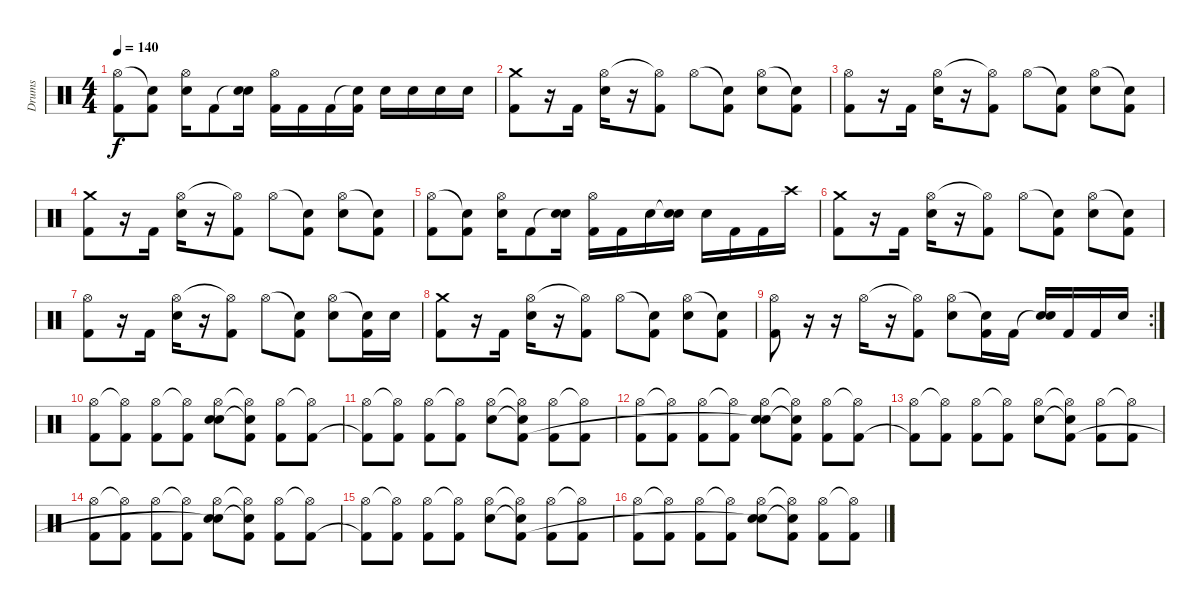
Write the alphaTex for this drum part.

\track ("Drums" "Drums") {instrument percussion}
\staff {score}
\articulation defaults
\ts (4 4)
\tempo 140
\clef neutral
\ks c
("Hi-Hat (open)" "Kick (hit) 2").8{dy f} ("Snare (hit)"{t} "Kick (hit) 2").8 ("Hi-Hat (open)" "Electric Snare (hit)").16 "Kick (hit) 2".8 ("Snare (hit)"{t} "Electric Snare (hit)").16 ("Hi-Hat (open)" "Kick (hit) 2").16 "Kick (hit) 2".16 "Kick (hit) 2".16 ("Snare (hit)"{t} "Kick (hit) 2").16 "Electric Snare (hit)".16 "Electric Snare (hit)".16 "Electric Snare (hit)".16 "Electric Snare (hit)".16 |
("Crash medium (hit)" "Kick (hit) 2").8 r.16 "Kick (hit) 2".16 ("Hi-Hat (open)" "Electric Snare (hit)").16 r.16 ("Hi-Hat (open)"{t} "Kick (hit) 2").8 "Hi-Hat (open)".8 ("Snare (hit)"{t} "Kick (hit) 2").8 ("Hi-Hat (open)" "Electric Snare (hit)").8 ("Snare (hit)"{t} "Kick (hit) 2").8 |
("Hi-Hat (open)" "Kick (hit) 2").8 r.16 "Kick (hit) 2".16 ("Hi-Hat (open)" "Electric Snare (hit)").16 r.16 ("Hi-Hat (open)"{t} "Kick (hit) 2").8 "Hi-Hat (open)".8 ("Snare (hit)"{t} "Kick (hit) 2").8 ("Hi-Hat (open)" "Electric Snare (hit)").8 ("Snare (hit)"{t} "Kick (hit) 2").8 |
("Crash medium (hit)" "Kick (hit) 2").8 r.16 "Kick (hit) 2".16 ("Hi-Hat (open)" "Electric Snare (hit)").16 r.16 ("Hi-Hat (open)"{t} "Kick (hit) 2").8 "Hi-Hat (open)".8 ("Snare (hit)"{t} "Kick (hit) 2").8 ("Hi-Hat (open)" "Electric Snare (hit)").8 ("Snare (hit)"{t} "Kick (hit) 2").8 |
("Hi-Hat (open)" "Kick (hit) 2").8 ("Snare (hit)"{t} "Kick (hit) 2").8 ("Hi-Hat (open)" "Electric Snare (hit)").16 "Kick (hit) 2".8 ("Snare (hit)"{t} "Electric Snare (hit)").16 ("Hi-Hat (open)" "Kick (hit) 2").16 "Kick (hit) 2".16 "Electric Snare (hit)".16 ("Snare (hit)"{t} "Electric Snare (hit)").16 "Electric Snare (hit)".16 "Kick (hit) 2".16 "Kick (hit) 2".16 "Crash high (hit)".16 |
("Crash medium (hit)" "Kick (hit) 2").8 r.16 "Kick (hit) 2".16 ("Hi-Hat (open)" "Electric Snare (hit)").16 r.16 ("Hi-Hat (open)"{t} "Kick (hit) 2").8 "Hi-Hat (open)".8 ("Snare (hit)"{t} "Kick (hit) 2").8 ("Hi-Hat (open)" "Electric Snare (hit)").8 ("Snare (hit)"{t} "Kick (hit) 2").8 |
("Hi-Hat (open)" "Kick (hit) 2").8 r.16 "Kick (hit) 2".16 ("Hi-Hat (open)" "Electric Snare (hit)").16 r.16 ("Hi-Hat (open)"{t} "Kick (hit) 2").8 "Hi-Hat (open)".8 ("Snare (hit)"{t} "Kick (hit) 2").8 ("Hi-Hat (open)" "Electric Snare (hit)").8 ("Snare (hit)"{t} "Kick (hit) 2").16 "Electric Snare (hit)".16 |
("Crash medium (hit)" "Kick (hit) 2").8 r.16 "Kick (hit) 2".16 ("Hi-Hat (open)" "Electric Snare (hit)").16 r.16 ("Hi-Hat (open)"{t} "Kick (hit) 2").8 "Hi-Hat (open)".8 ("Snare (hit)"{t} "Kick (hit) 2").8 ("Hi-Hat (open)" "Electric Snare (hit)").8 ("Snare (hit)"{t} "Kick (hit) 2").8 |
\rc 2
("Hi-Hat (open)" "Kick (hit) 2").8 r.16 r.16 "Hi-Hat (open)".16 r.16 ("Hi-Hat (open)"{t} "Kick (hit) 2").8 ("Hi-Hat (open)" "Electric Snare (hit)").8 ("Snare (hit)"{t} "Kick (hit) 2").16 "Kick (hit) 2".16 ("Snare (hit)"{t} "Electric Snare (hit)").16 "Kick (hit) 2".16 "Kick (hit) 2".16 "Electric Snare (hit)".16 |
("Hi-Hat (open)" "Kick (hit) 2").8 ("Hi-Hat (open)"{t} "Kick (hit) 2").8 ("Hi-Hat (open)" "Kick (hit) 2").8 ("Hi-Hat (open)"{t} "Kick (hit) 2").8 ("Hi-Hat (open)" "Electric Snare (hit)" "Snare (hit)").8 ("Hi-Hat (open)"{t} "Snare (hit) 2"{t} "Kick (hit) 2").8 ("Hi-Hat (open)" "Kick (hit) 2").8 ("Hi-Hat (open)"{t} "Kick (hit) 2").8 |
("Hi-Hat (open)" "Kick (hit) 2"{t}).8 ("Hi-Hat (open)"{t} "Kick (hit) 2").8 ("Hi-Hat (open)" "Kick (hit) 2").8 ("Hi-Hat (open)"{t} "Kick (hit) 2").8 ("Hi-Hat (open)" "Electric Snare (hit)").8 ("Hi-Hat (open)"{t} "Snare (hit)"{t} "Kick (hit) 2").8 ("Hi-Hat (open)" "Kick (hit) 2").8 ("Hi-Hat (open)"{t} "Kick (hit) 2").8 |
("Hi-Hat (open)" "Kick (hit) 2").8 ("Hi-Hat (open)"{t} "Kick (hit) 2").8 ("Hi-Hat (open)" "Kick (hit) 2").8 ("Hi-Hat (open)"{t} "Kick (hit) 2").8 ("Hi-Hat (open)" "Electric Snare (hit)" "Snare (hit)"{t}).8 ("Hi-Hat (open)"{t} "Snare (hit) 2"{t} "Kick (hit) 2").8 ("Hi-Hat (open)" "Kick (hit) 2").8 ("Hi-Hat (open)"{t} "Kick (hit) 2").8 |
("Hi-Hat (open)" "Kick (hit) 2"{t}).8 ("Hi-Hat (open)"{t} "Kick (hit) 2").8 ("Hi-Hat (open)" "Kick (hit) 2").8 ("Hi-Hat (open)"{t} "Kick (hit) 2").8 ("Hi-Hat (open)" "Electric Snare (hit)").8 ("Hi-Hat (open)"{t} "Snare (hit)"{t} "Kick (hit) 2").8 ("Hi-Hat (open)" "Kick (hit) 2").8 ("Hi-Hat (open)"{t} "Kick (hit) 2").8 |
("Hi-Hat (open)" "Kick (hit) 2").8 ("Hi-Hat (open)"{t} "Kick (hit) 2").8 ("Hi-Hat (open)" "Kick (hit) 2").8 ("Hi-Hat (open)"{t} "Kick (hit) 2").8 ("Hi-Hat (open)" "Electric Snare (hit)" "Snare (hit)"{t}).8 ("Hi-Hat (open)"{t} "Snare (hit) 2"{t} "Kick (hit) 2").8 ("Hi-Hat (open)" "Kick (hit) 2").8 ("Hi-Hat (open)"{t} "Kick (hit) 2").8 |
("Hi-Hat (open)" "Kick (hit) 2"{t}).8 ("Hi-Hat (open)"{t} "Kick (hit) 2").8 ("Hi-Hat (open)" "Kick (hit) 2").8 ("Hi-Hat (open)"{t} "Kick (hit) 2").8 ("Hi-Hat (open)" "Electric Snare (hit)").8 ("Hi-Hat (open)"{t} "Snare (hit)"{t} "Kick (hit) 2").8 ("Hi-Hat (open)" "Kick (hit) 2").8 ("Hi-Hat (open)"{t} "Kick (hit) 2").8 |
("Hi-Hat (open)" "Kick (hit) 2").8 ("Hi-Hat (open)"{t} "Kick (hit) 2").8 ("Hi-Hat (open)" "Kick (hit) 2").8 ("Hi-Hat (open)"{t} "Kick (hit) 2").8 ("Hi-Hat (open)" "Electric Snare (hit)" "Snare (hit)"{t}).8 ("Hi-Hat (open)"{t} "Snare (hit) 2"{t} "Kick (hit) 2").8 ("Hi-Hat (open)" "Kick (hit) 2").8 ("Hi-Hat (open)"{t} "Kick (hit) 2").8
